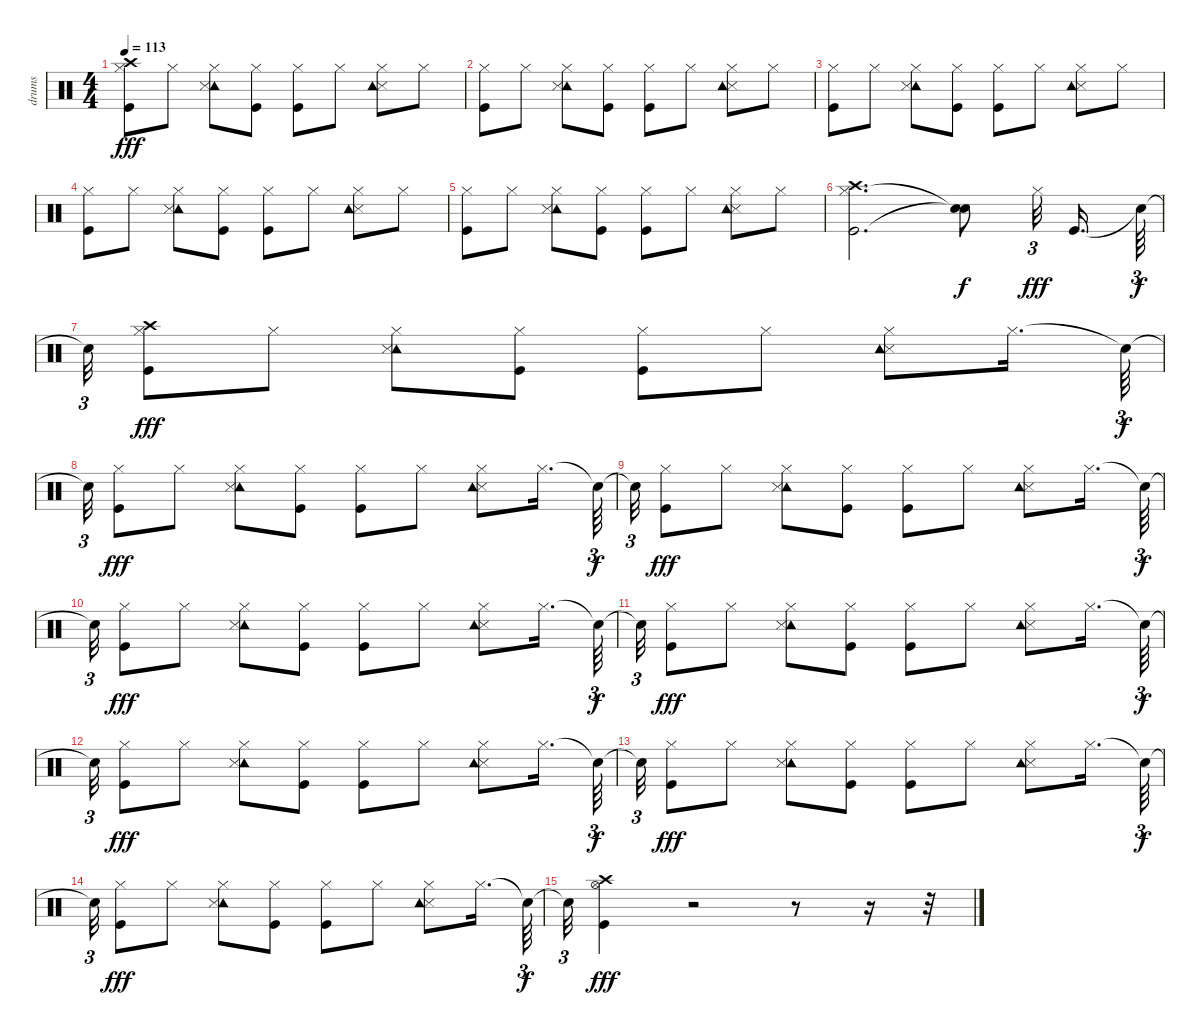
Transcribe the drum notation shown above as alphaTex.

\track ("drums" "drums") {instrument percussion}
\staff {score}
\articulation defaults
\ts (4 4)
\tempo 113
\clef neutral
\ks c
("Kick (hit)" "Hi-Hat (closed)" "Crash high (hit)").8{dy fff} "Hi-Hat (closed)".8 ("Tambourine (hit)" "Snare (side stick) 3" "Hi-Hat (closed)").8 ("Kick (hit)" "Hi-Hat (closed)").8 ("Kick (hit)" "Hi-Hat (closed)").8 "Hi-Hat (closed)".8 ("Snare (side stick) 3" "Hi-Hat (closed)" "Tambourine (hit)").8 "Hi-Hat (closed)".8 |
("Kick (hit)" "Hi-Hat (closed)").8 "Hi-Hat (closed)".8 ("Tambourine (hit)" "Hi-Hat (closed)" "Snare (side stick) 3").8 ("Kick (hit)" "Hi-Hat (closed)").8 ("Kick (hit)" "Hi-Hat (closed)").8 "Hi-Hat (closed)".8 ("Snare (side stick) 3" "Hi-Hat (closed)" "Tambourine (hit)").8 "Hi-Hat (closed)".8 |
("Kick (hit)" "Hi-Hat (closed)").8 "Hi-Hat (closed)".8 ("Tambourine (hit)" "Snare (side stick) 3" "Hi-Hat (closed)").8 ("Kick (hit)" "Hi-Hat (closed)").8 ("Kick (hit)" "Hi-Hat (closed)").8 "Hi-Hat (closed)".8 ("Hi-Hat (closed)" "Snare (side stick) 3" "Tambourine (hit)").8 "Hi-Hat (closed)".8 |
("Kick (hit)" "Hi-Hat (closed)").8 "Hi-Hat (closed)".8 ("Tambourine (hit)" "Hi-Hat (closed)" "Snare (side stick) 3").8 ("Kick (hit)" "Hi-Hat (closed)").8 ("Kick (hit)" "Hi-Hat (closed)").8 "Hi-Hat (closed)".8 ("Hi-Hat (closed)" "Snare (side stick) 3" "Tambourine (hit)").8 "Hi-Hat (closed)".8 |
("Kick (hit)" "Hi-Hat (closed)").8 "Hi-Hat (closed)".8 ("Tambourine (hit)" "Snare (side stick) 3" "Hi-Hat (closed)").8 ("Kick (hit)" "Hi-Hat (closed)").8 ("Kick (hit)" "Hi-Hat (closed)").8 "Hi-Hat (closed)".8 ("Snare (side stick) 3" "Hi-Hat (closed)" "Tambourine (hit)").8 "Hi-Hat (closed)".8 |
("Kick (hit)" "Hi-Hat (closed)" "Crash high (hit)").2{d} ("Snare (hit)"{t} "Snare (hit)"{t}).8{dy f} "Hi-Hat (closed)".32{tu (3 2) dy fff} "Kick (hit)".16{d} "Snare (hit)"{t}.64{tu (3 2) dy f} |
"Snare (hit)"{t}.32{tu (3 2)} ("Kick (hit)" "Hi-Hat (closed)" "Crash high (hit)").8{dy fff} "Hi-Hat (closed)".8 ("Tambourine (hit)" "Snare (side stick) 3" "Hi-Hat (closed)").8 ("Kick (hit)" "Hi-Hat (closed)").8 ("Kick (hit)" "Hi-Hat (closed)").8 "Hi-Hat (closed)".8 ("Snare (side stick) 3" "Hi-Hat (closed)" "Tambourine (hit)").8 "Hi-Hat (closed)".16{d} "Snare (hit)"{t}.64{tu (3 2) dy f} |
"Snare (hit)"{t}.32{tu (3 2)} ("Kick (hit)" "Hi-Hat (closed)").8{dy fff} "Hi-Hat (closed)".8 ("Tambourine (hit)" "Hi-Hat (closed)" "Snare (side stick) 3").8 ("Kick (hit)" "Hi-Hat (closed)").8 ("Kick (hit)" "Hi-Hat (closed)").8 "Hi-Hat (closed)".8 ("Snare (side stick) 3" "Hi-Hat (closed)" "Tambourine (hit)").8 "Hi-Hat (closed)".16{d} "Snare (hit)"{t}.64{tu (3 2) dy f} |
"Snare (hit)"{t}.32{tu (3 2)} ("Kick (hit)" "Hi-Hat (closed)").8{dy fff} "Hi-Hat (closed)".8 ("Tambourine (hit)" "Snare (side stick) 3" "Hi-Hat (closed)").8 ("Kick (hit)" "Hi-Hat (closed)").8 ("Kick (hit)" "Hi-Hat (closed)").8 "Hi-Hat (closed)".8 ("Hi-Hat (closed)" "Snare (side stick) 3" "Tambourine (hit)").8 "Hi-Hat (closed)".16{d} "Snare (hit)"{t}.64{tu (3 2) dy f} |
"Snare (hit)"{t}.32{tu (3 2)} ("Kick (hit)" "Hi-Hat (closed)").8{dy fff} "Hi-Hat (closed)".8 ("Tambourine (hit)" "Hi-Hat (closed)" "Snare (side stick) 3").8 ("Kick (hit)" "Hi-Hat (closed)").8 ("Kick (hit)" "Hi-Hat (closed)").8 "Hi-Hat (closed)".8 ("Hi-Hat (closed)" "Snare (side stick) 3" "Tambourine (hit)").8 "Hi-Hat (closed)".16{d} "Snare (hit)"{t}.64{tu (3 2) dy f} |
"Snare (hit)"{t}.32{tu (3 2)} ("Kick (hit)" "Hi-Hat (closed)").8{dy fff} "Hi-Hat (closed)".8 ("Tambourine (hit)" "Snare (side stick) 3" "Hi-Hat (closed)").8 ("Kick (hit)" "Hi-Hat (closed)").8 ("Kick (hit)" "Hi-Hat (closed)").8 "Hi-Hat (closed)".8 ("Snare (side stick) 3" "Hi-Hat (closed)" "Tambourine (hit)").8 "Hi-Hat (closed)".16{d} "Snare (hit)"{t}.64{tu (3 2) dy f} |
"Snare (hit)"{t}.32{tu (3 2)} ("Kick (hit)" "Hi-Hat (closed)").8{dy fff} "Hi-Hat (closed)".8 ("Tambourine (hit)" "Hi-Hat (closed)" "Snare (side stick) 3").8 ("Kick (hit)" "Hi-Hat (closed)").8 ("Kick (hit)" "Hi-Hat (closed)").8 "Hi-Hat (closed)".8 ("Snare (side stick) 3" "Hi-Hat (closed)" "Tambourine (hit)").8 "Hi-Hat (closed)".16{d} "Snare (hit)"{t}.64{tu (3 2) dy f} |
"Snare (hit)"{t}.32{tu (3 2)} ("Kick (hit)" "Hi-Hat (closed)").8{dy fff} "Hi-Hat (closed)".8 ("Tambourine (hit)" "Snare (side stick) 3" "Hi-Hat (closed)").8 ("Kick (hit)" "Hi-Hat (closed)").8 ("Kick (hit)" "Hi-Hat (closed)").8 "Hi-Hat (closed)".8 ("Hi-Hat (closed)" "Snare (side stick) 3" "Tambourine (hit)").8 "Hi-Hat (closed)".16{d} "Snare (hit)"{t}.64{tu (3 2) dy f} |
"Snare (hit)"{t}.32{tu (3 2)} ("Kick (hit)" "Hi-Hat (closed)").8{dy fff} "Hi-Hat (closed)".8 ("Tambourine (hit)" "Hi-Hat (closed)" "Snare (side stick) 3").8 ("Kick (hit)" "Hi-Hat (closed)").8 ("Kick (hit)" "Hi-Hat (closed)").8 "Hi-Hat (closed)".8 ("Hi-Hat (closed)" "Snare (side stick) 3" "Tambourine (hit)").8 "Hi-Hat (closed)".16{d} "Snare (hit)"{t}.64{tu (3 2) dy f} |
"Snare (hit)"{t}.32{tu (3 2)} ("Kick (hit)" "Hi-Hat (open)" "Crash high (hit)").4{dy fff} r.2 r.8 r.16 r.32
